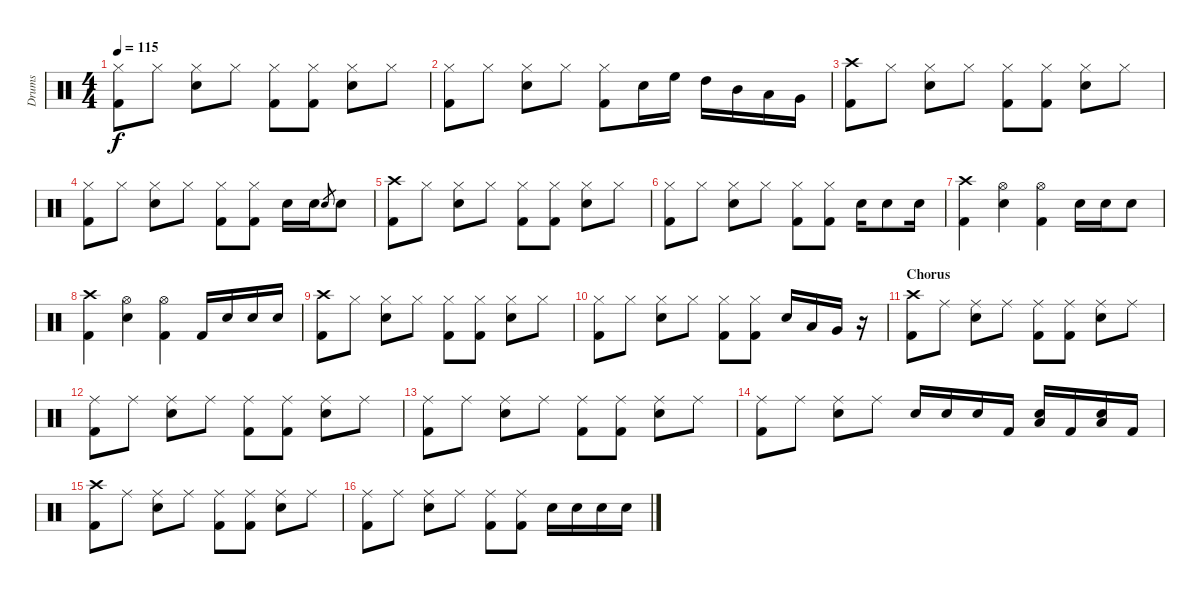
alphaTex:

\track ("Drums" "Drums") {instrument percussion}
\staff {score}
\articulation defaults
\ts (4 4)
\tempo 115
\clef neutral
\ks c
("Hi-Hat (closed)" "Kick (hit) 2").8{dy f} "Hi-Hat (closed)".8 ("Hi-Hat (closed)" "Electric Snare (hit)").8 "Hi-Hat (closed)".8 ("Hi-Hat (closed)" "Kick (hit) 2").8 ("Hi-Hat (closed)" "Kick (hit) 2").8 ("Hi-Hat (closed)" "Electric Snare (hit)").8 "Hi-Hat (closed)".8 |
("Hi-Hat (closed)" "Kick (hit) 2").8 "Hi-Hat (closed)".8 ("Hi-Hat (closed)" "Electric Snare (hit)").8 "Hi-Hat (closed)".8 ("Hi-Hat (closed)" "Kick (hit) 2").8 "Electric Snare (hit)".16 "High Floor Tom (hit)".16 "High Tom (hit)".16 "Mid Tom (hit)".16 "Low Tom (hit)".16 "Very Low Tom (hit)".16 |
("Crash high (hit)" "Kick (hit) 2").8 "Hi-Hat (closed)".8 ("Hi-Hat (closed)" "Electric Snare (hit)").8 "Hi-Hat (closed)".8 ("Hi-Hat (closed)" "Kick (hit) 2").8 ("Hi-Hat (closed)" "Kick (hit) 2").8 ("Hi-Hat (closed)" "Electric Snare (hit)").8 "Hi-Hat (closed)".8 |
("Hi-Hat (closed)" "Kick (hit) 2").8 "Hi-Hat (closed)".8 ("Hi-Hat (closed)" "Electric Snare (hit)").8 "Hi-Hat (closed)".8 ("Hi-Hat (closed)" "Kick (hit) 2").8 ("Hi-Hat (closed)" "Kick (hit) 2").8 "Electric Snare (hit)".16 "Electric Snare (hit)".16 "Electric Snare (hit)".8{gr} "Electric Snare (hit)".8 |
("Crash high (hit)" "Kick (hit) 2").8 "Hi-Hat (closed)".8 ("Hi-Hat (closed)" "Electric Snare (hit)").8 "Hi-Hat (closed)".8 ("Hi-Hat (closed)" "Kick (hit) 2").8 ("Hi-Hat (closed)" "Kick (hit) 2").8 ("Hi-Hat (closed)" "Electric Snare (hit)").8 "Hi-Hat (closed)".8 |
("Hi-Hat (closed)" "Kick (hit) 2").8 "Hi-Hat (closed)".8 ("Hi-Hat (closed)" "Electric Snare (hit)").8 "Hi-Hat (closed)".8 ("Hi-Hat (closed)" "Kick (hit) 2").8 ("Hi-Hat (closed)" "Kick (hit) 2").8 "Electric Snare (hit)".16 "Electric Snare (hit)".8 "Electric Snare (hit)".16 |
("Crash high (hit)" "Kick (hit) 2").4 ("Hi-Hat (open)" "Electric Snare (hit)").4 ("Hi-Hat (open)" "Kick (hit) 2").4 "Electric Snare (hit)".16 "Electric Snare (hit)".16 "Electric Snare (hit)".8 |
("Crash high (hit)" "Kick (hit) 2").4 ("Hi-Hat (open)" "Electric Snare (hit)").4 ("Hi-Hat (open)" "Kick (hit) 2").4 "Kick (hit) 2".16 "Electric Snare (hit)".16 "Electric Snare (hit)".16 "Electric Snare (hit)".16 |
("Crash high (hit)" "Kick (hit) 2").8 "Hi-Hat (closed)".8 ("Hi-Hat (closed)" "Electric Snare (hit)").8 "Hi-Hat (closed)".8 ("Hi-Hat (closed)" "Kick (hit) 2").8 ("Hi-Hat (closed)" "Kick (hit) 2").8 ("Hi-Hat (closed)" "Electric Snare (hit)").8 "Hi-Hat (closed)".8 |
("Hi-Hat (closed)" "Kick (hit) 2").8 "Hi-Hat (closed)".8 ("Hi-Hat (closed)" "Electric Snare (hit)").8 "Hi-Hat (closed)".8 ("Hi-Hat (closed)" "Kick (hit) 2").8 ("Hi-Hat (closed)" "Kick (hit) 2").8 "Electric Snare (hit)".16 "Low Tom (hit)".16 "Very Low Tom (hit)".16 r.16 |
\section ("" "Chorus")
("Crash high (hit)" "Kick (hit) 2").8 "Ride (middle)".8 ("Ride (middle)" "Electric Snare (hit)").8 "Ride (middle)".8 ("Ride (middle)" "Kick (hit) 2").8 ("Ride (middle)" "Kick (hit) 2").8 ("Ride (middle)" "Electric Snare (hit)").8 "Ride (middle)".8 |
("Ride (middle)" "Kick (hit) 2").8 "Ride (middle)".8 ("Ride (middle)" "Electric Snare (hit)").8 "Ride (middle)".8 ("Ride (middle)" "Kick (hit) 2").8 ("Ride (middle)" "Kick (hit) 2").8 ("Ride (middle)" "Electric Snare (hit)").8 "Ride (middle)".8 |
("Ride (middle)" "Kick (hit) 2").8 "Ride (middle)".8 ("Ride (middle)" "Electric Snare (hit)").8 "Ride (middle)".8 ("Ride (middle)" "Kick (hit) 2").8 ("Ride (middle)" "Kick (hit) 2").8 ("Ride (middle)" "Electric Snare (hit)").8 "Ride (middle)".8 |
("Ride (middle)" "Kick (hit) 2").8 "Ride (middle)".8 ("Ride (middle)" "Electric Snare (hit)").8 "Ride (middle)".8 "Electric Snare (hit)".16 "Electric Snare (hit)".16 "Electric Snare (hit)".16 "Kick (hit) 2".16 ("Electric Snare (hit)" "Low Tom (hit)").16 "Kick (hit) 2".16 ("Electric Snare (hit)" "Low Tom (hit)").16 "Kick (hit) 2".16 |
("Crash high (hit)" "Kick (hit) 2").8 "Ride (middle)".8 ("Ride (middle)" "Electric Snare (hit)").8 "Ride (middle)".8 ("Ride (middle)" "Kick (hit) 2").8 ("Ride (middle)" "Kick (hit) 2").8 ("Ride (middle)" "Electric Snare (hit)").8 "Ride (middle)".8 |
("Ride (middle)" "Kick (hit) 2").8 "Ride (middle)".8 ("Ride (middle)" "Electric Snare (hit)").8 "Ride (middle)".8 ("Ride (middle)" "Kick (hit) 2").8 ("Ride (middle)" "Kick (hit) 2").8 "Electric Snare (hit)".16 "Electric Snare (hit)".16 "Electric Snare (hit)".16 "Electric Snare (hit)".16
